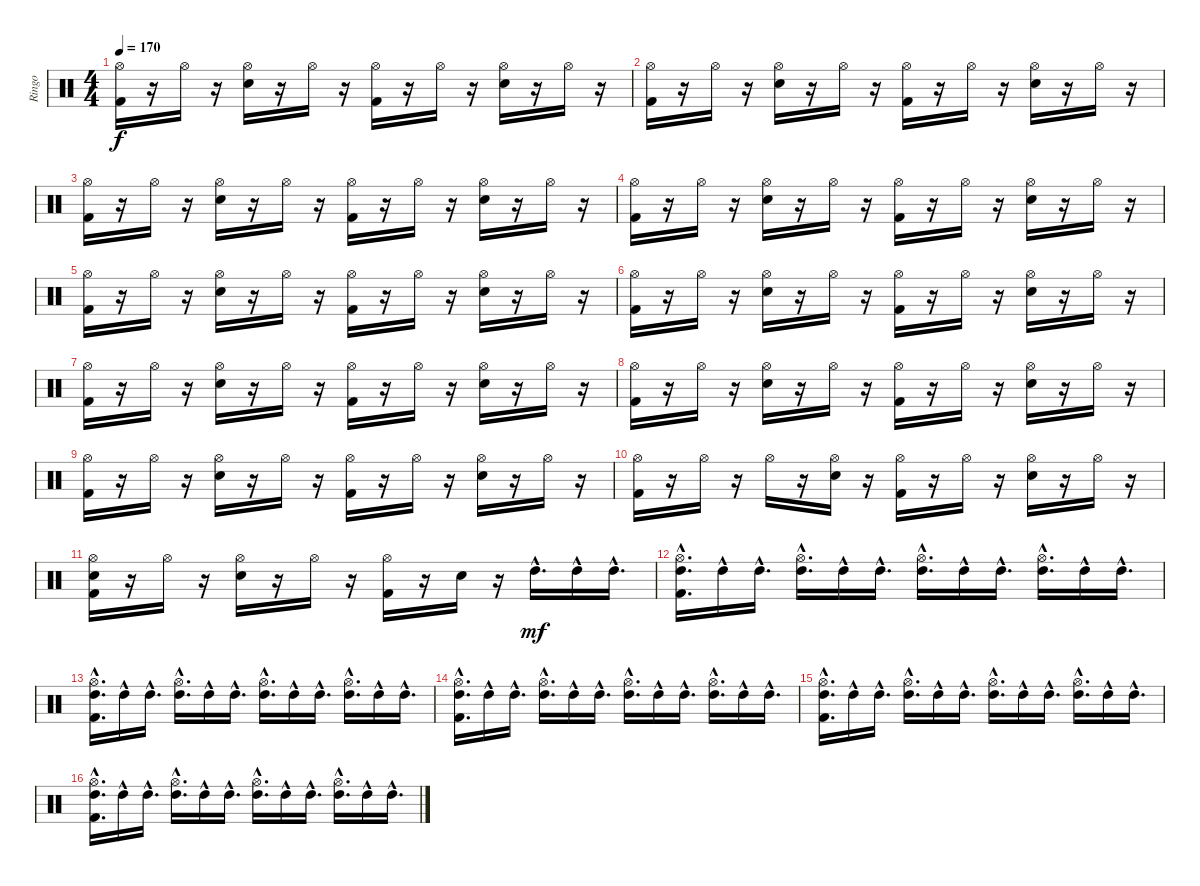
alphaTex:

\track ("Ringo" "Ringo") {instrument percussion}
\staff {score}
\articulation defaults
\ts (4 4)
\tempo 170
\clef neutral
\ks c
("Hi-Hat (open)" "Kick (hit) 2").16{dy f} r.16 "Hi-Hat (open)".16 r.16 ("Hi-Hat (open)" "Snare (hit) 2").16 r.16 "Hi-Hat (open)".16 r.16 ("Hi-Hat (open)" "Kick (hit) 2").16 r.16 "Hi-Hat (open)".16 r.16 ("Hi-Hat (open)" "Snare (hit) 2").16 r.16 "Hi-Hat (open)".16 r.16 |
("Kick (hit) 2" "Hi-Hat (open)").16 r.16 "Hi-Hat (open)".16 r.16 ("Snare (hit) 2" "Hi-Hat (open)").16 r.16 "Hi-Hat (open)".16 r.16 ("Kick (hit) 2" "Hi-Hat (open)").16 r.16 "Hi-Hat (open)".16 r.16 ("Snare (hit) 2" "Hi-Hat (open)").16 r.16 "Hi-Hat (open)".16 r.16 |
("Kick (hit) 2" "Hi-Hat (open)").16 r.16 "Hi-Hat (open)".16 r.16 ("Snare (hit) 2" "Hi-Hat (open)").16 r.16 "Hi-Hat (open)".16 r.16 ("Kick (hit) 2" "Hi-Hat (open)").16 r.16 "Hi-Hat (open)".16 r.16 ("Snare (hit) 2" "Hi-Hat (open)").16 r.16 "Hi-Hat (open)".16 r.16 |
("Kick (hit) 2" "Hi-Hat (open)").16 r.16 "Hi-Hat (open)".16 r.16 ("Snare (hit) 2" "Hi-Hat (open)").16 r.16 "Hi-Hat (open)".16 r.16 ("Kick (hit) 2" "Hi-Hat (open)").16 r.16 "Hi-Hat (open)".16 r.16 ("Snare (hit) 2" "Hi-Hat (open)").16 r.16 "Hi-Hat (open)".16 r.16 |
("Kick (hit) 2" "Hi-Hat (open)").16 r.16 "Hi-Hat (open)".16 r.16 ("Snare (hit) 2" "Hi-Hat (open)").16 r.16 "Hi-Hat (open)".16 r.16 ("Kick (hit) 2" "Hi-Hat (open)").16 r.16 "Hi-Hat (open)".16 r.16 ("Snare (hit) 2" "Hi-Hat (open)").16 r.16 "Hi-Hat (open)".16 r.16 |
("Kick (hit) 2" "Hi-Hat (open)").16 r.16 "Hi-Hat (open)".16 r.16 ("Snare (hit) 2" "Hi-Hat (open)").16 r.16 "Hi-Hat (open)".16 r.16 ("Kick (hit) 2" "Hi-Hat (open)").16 r.16 "Hi-Hat (open)".16 r.16 ("Snare (hit) 2" "Hi-Hat (open)").16 r.16 "Hi-Hat (open)".16 r.16 |
("Kick (hit) 2" "Hi-Hat (open)").16 r.16 "Hi-Hat (open)".16 r.16 ("Snare (hit) 2" "Hi-Hat (open)").16 r.16 "Hi-Hat (open)".16 r.16 ("Kick (hit) 2" "Hi-Hat (open)").16 r.16 "Hi-Hat (open)".16 r.16 ("Snare (hit) 2" "Hi-Hat (open)").16 r.16 "Hi-Hat (open)".16 r.16 |
("Kick (hit) 2" "Hi-Hat (open)").16 r.16 "Hi-Hat (open)".16 r.16 ("Snare (hit) 2" "Hi-Hat (open)").16 r.16 "Hi-Hat (open)".16 r.16 ("Kick (hit) 2" "Hi-Hat (open)").16 r.16 "Hi-Hat (open)".16 r.16 ("Snare (hit) 2" "Hi-Hat (open)").16 r.16 "Hi-Hat (open)".16 r.16 |
("Kick (hit) 2" "Hi-Hat (open)").16 r.16 "Hi-Hat (open)".16 r.16 ("Snare (hit) 2" "Hi-Hat (open)").16 r.16 "Hi-Hat (open)".16 r.16 ("Kick (hit) 2" "Hi-Hat (open)").16 r.16 "Hi-Hat (open)".16 r.16 ("Snare (hit) 2" "Hi-Hat (open)").16 r.16 "Hi-Hat (open)".16 r.16 |
("Hi-Hat (open)" "Kick (hit) 2").16 r.16 "Hi-Hat (open)".16 r.16 "Hi-Hat (open)".16 r.16 ("Hi-Hat (open)" "Snare (hit) 2").16 r.16 ("Hi-Hat (open)" "Kick (hit) 2").16 r.16 "Hi-Hat (open)".16 r.16 ("Hi-Hat (open)" "Snare (hit) 2").16 r.16 "Hi-Hat (open)".16 r.16 |
("Hi-Hat (open)" "Kick (hit) 2" "Snare (hit) 2").16 r.16 "Hi-Hat (open)".16 r.16 ("Hi-Hat (open)" "Snare (hit) 2").16 r.16 "Hi-Hat (open)".16 r.16 ("Hi-Hat (open)" "Kick (hit) 2").16 r.16 "Snare (hit) 2".16 r.16 "High Tom (hit)"{hac}.16{d dy mf} "High Tom (hit)"{hac}.16 "High Tom (hit)"{hac}.16{d} |
("Hi-Hat (open)"{hac} "Kick (hit) 2"{hac} "High Tom (hit)"{hac}).16{d} "High Tom (hit)"{hac}.16 "High Tom (hit)"{hac}.16{d} ("Hi-Hat (open)"{hac} "High Tom (hit)"{hac}).16{d} "High Tom (hit)"{hac}.16 "High Tom (hit)"{hac}.16{d} ("Hi-Hat (open)"{hac} "High Tom (hit)"{hac}).16{d} "High Tom (hit)"{hac}.16 "High Tom (hit)"{hac}.16{d} ("Hi-Hat (open)"{hac} "High Tom (hit)"{hac}).16{d} "High Tom (hit)"{hac}.16 "High Tom (hit)"{hac}.16{d} |
("High Tom (hit)"{hac} "Kick (hit) 2"{hac} "Hi-Hat (open)"{hac}).16{d} "High Tom (hit)"{hac}.16 "High Tom (hit)"{hac}.16{d} ("High Tom (hit)"{hac} "Hi-Hat (open)"{hac}).16{d} "High Tom (hit)"{hac}.16 "High Tom (hit)"{hac}.16{d} ("High Tom (hit)"{hac} "Hi-Hat (open)"{hac}).16{d} "High Tom (hit)"{hac}.16 "High Tom (hit)"{hac}.16{d} ("High Tom (hit)"{hac} "Hi-Hat (open)"{hac}).16{d} "High Tom (hit)"{hac}.16 "High Tom (hit)"{hac}.16{d} |
("High Tom (hit)"{hac} "Kick (hit) 2"{hac} "Hi-Hat (open)"{hac}).16{d} "High Tom (hit)"{hac}.16 "High Tom (hit)"{hac}.16{d} ("High Tom (hit)"{hac} "Hi-Hat (open)"{hac}).16{d} "High Tom (hit)"{hac}.16 "High Tom (hit)"{hac}.16{d} ("High Tom (hit)"{hac} "Hi-Hat (open)"{hac}).16{d} "High Tom (hit)"{hac}.16 "High Tom (hit)"{hac}.16{d} ("High Tom (hit)"{hac} "Hi-Hat (open)"{hac}).16{d} "High Tom (hit)"{hac}.16 "High Tom (hit)"{hac}.16{d} |
("High Tom (hit)"{hac} "Kick (hit) 2"{hac} "Hi-Hat (open)"{hac}).16{d} "High Tom (hit)"{hac}.16 "High Tom (hit)"{hac}.16{d} ("High Tom (hit)"{hac} "Hi-Hat (open)"{hac}).16{d} "High Tom (hit)"{hac}.16 "High Tom (hit)"{hac}.16{d} ("High Tom (hit)"{hac} "Hi-Hat (open)"{hac}).16{d} "High Tom (hit)"{hac}.16 "High Tom (hit)"{hac}.16{d} ("High Tom (hit)"{hac} "Hi-Hat (open)"{hac}).16{d} "High Tom (hit)"{hac}.16 "High Tom (hit)"{hac}.16{d} |
("High Tom (hit)"{hac} "Kick (hit) 2"{hac} "Hi-Hat (open)"{hac}).16{d} "High Tom (hit)"{hac}.16 "High Tom (hit)"{hac}.16{d} ("High Tom (hit)"{hac} "Hi-Hat (open)"{hac}).16{d} "High Tom (hit)"{hac}.16 "High Tom (hit)"{hac}.16{d} ("High Tom (hit)"{hac} "Hi-Hat (open)"{hac}).16{d} "High Tom (hit)"{hac}.16 "High Tom (hit)"{hac}.16{d} ("High Tom (hit)"{hac} "Hi-Hat (open)"{hac}).16{d} "High Tom (hit)"{hac}.16 "High Tom (hit)"{hac}.16{d}
